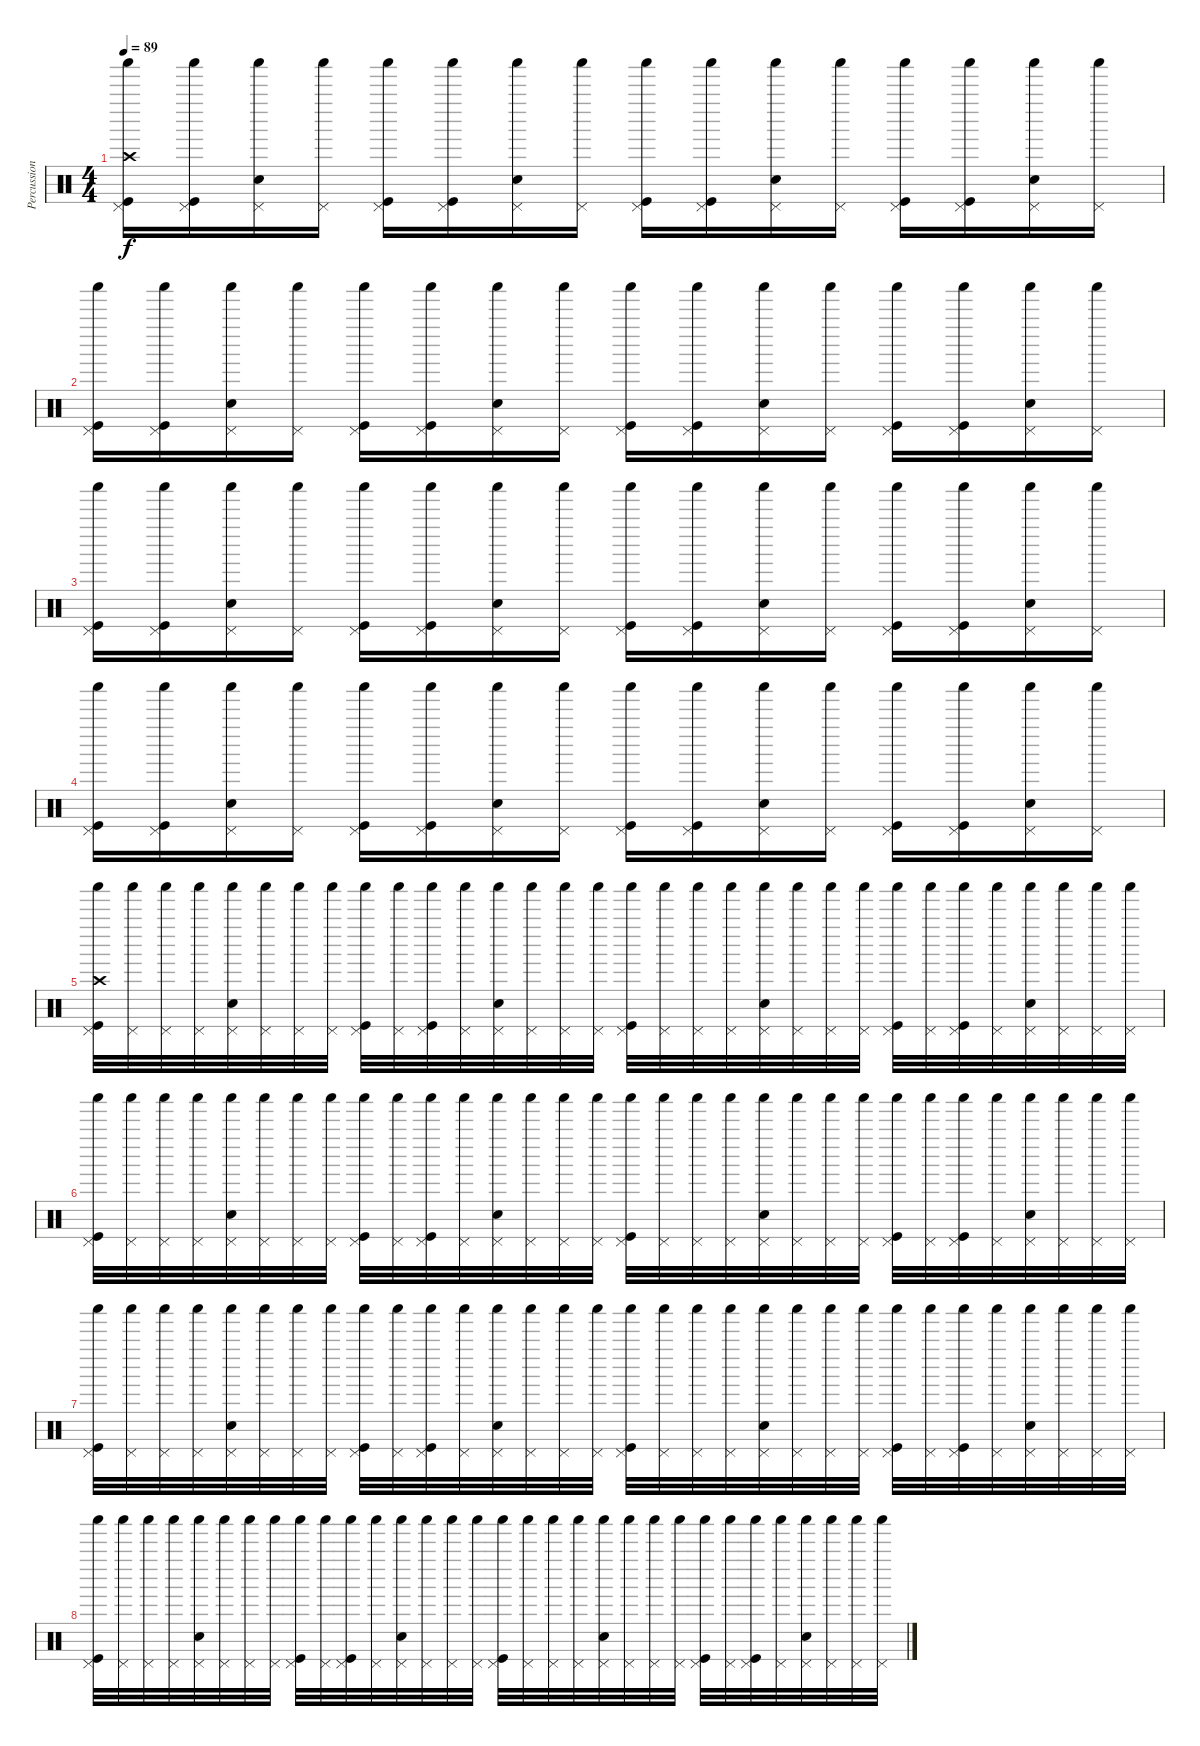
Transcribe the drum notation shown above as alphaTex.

\track ("Percussion" "Percussion") {instrument percussion}
\staff {score}
\articulation defaults
\ts (4 4)
\tempo 89
\clef neutral
\ks c
("Pedal Hi-Hat (hit)" "Shaker (hit)" "Crash high (hit)" "Kick (hit)").16{dy f} ("Pedal Hi-Hat (hit)" "Shaker (hit)" "Kick (hit)").16 ("Pedal Hi-Hat (hit)" "Shaker (hit)" "Snare (hit) 2").16 ("Pedal Hi-Hat (hit)" "Shaker (hit)").16 ("Pedal Hi-Hat (hit)" "Shaker (hit)" "Kick (hit)").16 ("Pedal Hi-Hat (hit)" "Shaker (hit)" "Kick (hit)").16 ("Pedal Hi-Hat (hit)" "Shaker (hit)" "Snare (hit) 2").16 ("Pedal Hi-Hat (hit)" "Shaker (hit)").16 ("Pedal Hi-Hat (hit)" "Shaker (hit)" "Kick (hit)").16 ("Pedal Hi-Hat (hit)" "Shaker (hit)" "Kick (hit)").16 ("Pedal Hi-Hat (hit)" "Shaker (hit)" "Snare (hit) 2").16 ("Pedal Hi-Hat (hit)" "Shaker (hit)").16 ("Pedal Hi-Hat (hit)" "Shaker (hit)" "Kick (hit)").16 ("Pedal Hi-Hat (hit)" "Shaker (hit)" "Kick (hit)").16 ("Pedal Hi-Hat (hit)" "Shaker (hit)" "Snare (hit) 2").16 ("Pedal Hi-Hat (hit)" "Shaker (hit)").16 |
("Pedal Hi-Hat (hit)" "Shaker (hit)" "Kick (hit)").16 ("Pedal Hi-Hat (hit)" "Shaker (hit)" "Kick (hit)").16 ("Pedal Hi-Hat (hit)" "Shaker (hit)" "Snare (hit) 2").16 ("Pedal Hi-Hat (hit)" "Shaker (hit)").16 ("Pedal Hi-Hat (hit)" "Shaker (hit)" "Kick (hit)").16 ("Pedal Hi-Hat (hit)" "Shaker (hit)" "Kick (hit)").16 ("Pedal Hi-Hat (hit)" "Shaker (hit)" "Snare (hit) 2").16 ("Pedal Hi-Hat (hit)" "Shaker (hit)").16 ("Pedal Hi-Hat (hit)" "Shaker (hit)" "Kick (hit)").16 ("Pedal Hi-Hat (hit)" "Shaker (hit)" "Kick (hit)").16 ("Pedal Hi-Hat (hit)" "Shaker (hit)" "Snare (hit) 2").16 ("Pedal Hi-Hat (hit)" "Shaker (hit)").16 ("Pedal Hi-Hat (hit)" "Shaker (hit)" "Kick (hit)").16 ("Pedal Hi-Hat (hit)" "Shaker (hit)" "Kick (hit)").16 ("Pedal Hi-Hat (hit)" "Shaker (hit)" "Snare (hit) 2").16 ("Pedal Hi-Hat (hit)" "Shaker (hit)").16 |
("Pedal Hi-Hat (hit)" "Shaker (hit)" "Kick (hit)").16 ("Pedal Hi-Hat (hit)" "Shaker (hit)" "Kick (hit)").16 ("Pedal Hi-Hat (hit)" "Shaker (hit)" "Snare (hit) 2").16 ("Pedal Hi-Hat (hit)" "Shaker (hit)").16 ("Pedal Hi-Hat (hit)" "Shaker (hit)" "Kick (hit)").16 ("Pedal Hi-Hat (hit)" "Shaker (hit)" "Kick (hit)").16 ("Pedal Hi-Hat (hit)" "Shaker (hit)" "Snare (hit) 2").16 ("Pedal Hi-Hat (hit)" "Shaker (hit)").16 ("Pedal Hi-Hat (hit)" "Shaker (hit)" "Kick (hit)").16 ("Pedal Hi-Hat (hit)" "Shaker (hit)" "Kick (hit)").16 ("Pedal Hi-Hat (hit)" "Shaker (hit)" "Snare (hit) 2").16 ("Pedal Hi-Hat (hit)" "Shaker (hit)").16 ("Pedal Hi-Hat (hit)" "Shaker (hit)" "Kick (hit)").16 ("Pedal Hi-Hat (hit)" "Shaker (hit)" "Kick (hit)").16 ("Pedal Hi-Hat (hit)" "Shaker (hit)" "Snare (hit) 2").16 ("Pedal Hi-Hat (hit)" "Shaker (hit)").16 |
("Pedal Hi-Hat (hit)" "Shaker (hit)" "Kick (hit)").16 ("Pedal Hi-Hat (hit)" "Shaker (hit)" "Kick (hit)").16 ("Pedal Hi-Hat (hit)" "Shaker (hit)" "Snare (hit) 2").16 ("Pedal Hi-Hat (hit)" "Shaker (hit)").16 ("Pedal Hi-Hat (hit)" "Shaker (hit)" "Kick (hit)").16 ("Pedal Hi-Hat (hit)" "Shaker (hit)" "Kick (hit)").16 ("Pedal Hi-Hat (hit)" "Shaker (hit)" "Snare (hit) 2").16 ("Pedal Hi-Hat (hit)" "Shaker (hit)").16 ("Pedal Hi-Hat (hit)" "Shaker (hit)" "Kick (hit)").16 ("Pedal Hi-Hat (hit)" "Shaker (hit)" "Kick (hit)").16 ("Pedal Hi-Hat (hit)" "Shaker (hit)" "Snare (hit) 2").16 ("Pedal Hi-Hat (hit)" "Shaker (hit)").16 ("Pedal Hi-Hat (hit)" "Shaker (hit)" "Kick (hit)").16 ("Pedal Hi-Hat (hit)" "Shaker (hit)" "Kick (hit)").16 ("Pedal Hi-Hat (hit)" "Shaker (hit)" "Snare (hit) 2").16 ("Pedal Hi-Hat (hit)" "Shaker (hit)").16 |
("Pedal Hi-Hat (hit)" "Shaker (hit)" "Crash high (hit)" "Kick (hit)").32 ("Pedal Hi-Hat (hit)" "Shaker (hit)").32 ("Pedal Hi-Hat (hit)" "Shaker (hit)").32 ("Pedal Hi-Hat (hit)" "Shaker (hit)").32 ("Pedal Hi-Hat (hit)" "Shaker (hit)" "Snare (hit) 2").32 ("Pedal Hi-Hat (hit)" "Shaker (hit)").32 ("Pedal Hi-Hat (hit)" "Shaker (hit)").32 ("Pedal Hi-Hat (hit)" "Shaker (hit)").32 ("Pedal Hi-Hat (hit)" "Shaker (hit)" "Kick (hit)").32 ("Pedal Hi-Hat (hit)" "Shaker (hit)").32 ("Pedal Hi-Hat (hit)" "Shaker (hit)" "Kick (hit)").32 ("Pedal Hi-Hat (hit)" "Shaker (hit)").32 ("Pedal Hi-Hat (hit)" "Shaker (hit)" "Snare (hit) 2").32 ("Pedal Hi-Hat (hit)" "Shaker (hit)").32 ("Pedal Hi-Hat (hit)" "Shaker (hit)").32 ("Pedal Hi-Hat (hit)" "Shaker (hit)").32 ("Pedal Hi-Hat (hit)" "Shaker (hit)" "Kick (hit)").32 ("Pedal Hi-Hat (hit)" "Shaker (hit)").32 ("Pedal Hi-Hat (hit)" "Shaker (hit)").32 ("Pedal Hi-Hat (hit)" "Shaker (hit)").32 ("Pedal Hi-Hat (hit)" "Shaker (hit)" "Snare (hit) 2").32 ("Pedal Hi-Hat (hit)" "Shaker (hit)").32 ("Pedal Hi-Hat (hit)" "Shaker (hit)").32 ("Pedal Hi-Hat (hit)" "Shaker (hit)").32 ("Pedal Hi-Hat (hit)" "Shaker (hit)" "Kick (hit)").32 ("Pedal Hi-Hat (hit)" "Shaker (hit)").32 ("Pedal Hi-Hat (hit)" "Shaker (hit)" "Kick (hit)").32 ("Pedal Hi-Hat (hit)" "Shaker (hit)").32 ("Pedal Hi-Hat (hit)" "Shaker (hit)" "Snare (hit) 2").32 ("Pedal Hi-Hat (hit)" "Shaker (hit)").32 ("Pedal Hi-Hat (hit)" "Shaker (hit)").32 ("Pedal Hi-Hat (hit)" "Shaker (hit)").32 |
("Pedal Hi-Hat (hit)" "Shaker (hit)" "Kick (hit)").32 ("Pedal Hi-Hat (hit)" "Shaker (hit)").32 ("Pedal Hi-Hat (hit)" "Shaker (hit)").32 ("Pedal Hi-Hat (hit)" "Shaker (hit)").32 ("Pedal Hi-Hat (hit)" "Shaker (hit)" "Snare (hit) 2").32 ("Pedal Hi-Hat (hit)" "Shaker (hit)").32 ("Pedal Hi-Hat (hit)" "Shaker (hit)").32 ("Pedal Hi-Hat (hit)" "Shaker (hit)").32 ("Pedal Hi-Hat (hit)" "Shaker (hit)" "Kick (hit)").32 ("Pedal Hi-Hat (hit)" "Shaker (hit)").32 ("Pedal Hi-Hat (hit)" "Shaker (hit)" "Kick (hit)").32 ("Pedal Hi-Hat (hit)" "Shaker (hit)").32 ("Pedal Hi-Hat (hit)" "Shaker (hit)" "Snare (hit) 2").32 ("Pedal Hi-Hat (hit)" "Shaker (hit)").32 ("Pedal Hi-Hat (hit)" "Shaker (hit)").32 ("Pedal Hi-Hat (hit)" "Shaker (hit)").32 ("Pedal Hi-Hat (hit)" "Shaker (hit)" "Kick (hit)").32 ("Pedal Hi-Hat (hit)" "Shaker (hit)").32 ("Pedal Hi-Hat (hit)" "Shaker (hit)").32 ("Pedal Hi-Hat (hit)" "Shaker (hit)").32 ("Pedal Hi-Hat (hit)" "Shaker (hit)" "Snare (hit) 2").32 ("Pedal Hi-Hat (hit)" "Shaker (hit)").32 ("Pedal Hi-Hat (hit)" "Shaker (hit)").32 ("Pedal Hi-Hat (hit)" "Shaker (hit)").32 ("Pedal Hi-Hat (hit)" "Shaker (hit)" "Kick (hit)").32 ("Pedal Hi-Hat (hit)" "Shaker (hit)").32 ("Pedal Hi-Hat (hit)" "Shaker (hit)" "Kick (hit)").32 ("Pedal Hi-Hat (hit)" "Shaker (hit)").32 ("Pedal Hi-Hat (hit)" "Shaker (hit)" "Snare (hit) 2").32 ("Pedal Hi-Hat (hit)" "Shaker (hit)").32 ("Pedal Hi-Hat (hit)" "Shaker (hit)").32 ("Pedal Hi-Hat (hit)" "Shaker (hit)").32 |
("Pedal Hi-Hat (hit)" "Shaker (hit)" "Kick (hit)").32 ("Pedal Hi-Hat (hit)" "Shaker (hit)").32 ("Pedal Hi-Hat (hit)" "Shaker (hit)").32 ("Pedal Hi-Hat (hit)" "Shaker (hit)").32 ("Pedal Hi-Hat (hit)" "Shaker (hit)" "Snare (hit) 2").32 ("Pedal Hi-Hat (hit)" "Shaker (hit)").32 ("Pedal Hi-Hat (hit)" "Shaker (hit)").32 ("Pedal Hi-Hat (hit)" "Shaker (hit)").32 ("Pedal Hi-Hat (hit)" "Shaker (hit)" "Kick (hit)").32 ("Pedal Hi-Hat (hit)" "Shaker (hit)").32 ("Pedal Hi-Hat (hit)" "Shaker (hit)" "Kick (hit)").32 ("Pedal Hi-Hat (hit)" "Shaker (hit)").32 ("Pedal Hi-Hat (hit)" "Shaker (hit)" "Snare (hit) 2").32 ("Pedal Hi-Hat (hit)" "Shaker (hit)").32 ("Pedal Hi-Hat (hit)" "Shaker (hit)").32 ("Pedal Hi-Hat (hit)" "Shaker (hit)").32 ("Pedal Hi-Hat (hit)" "Shaker (hit)" "Kick (hit)").32 ("Pedal Hi-Hat (hit)" "Shaker (hit)").32 ("Pedal Hi-Hat (hit)" "Shaker (hit)").32 ("Pedal Hi-Hat (hit)" "Shaker (hit)").32 ("Pedal Hi-Hat (hit)" "Shaker (hit)" "Snare (hit) 2").32 ("Pedal Hi-Hat (hit)" "Shaker (hit)").32 ("Pedal Hi-Hat (hit)" "Shaker (hit)").32 ("Pedal Hi-Hat (hit)" "Shaker (hit)").32 ("Pedal Hi-Hat (hit)" "Shaker (hit)" "Kick (hit)").32 ("Pedal Hi-Hat (hit)" "Shaker (hit)").32 ("Pedal Hi-Hat (hit)" "Shaker (hit)" "Kick (hit)").32 ("Pedal Hi-Hat (hit)" "Shaker (hit)").32 ("Pedal Hi-Hat (hit)" "Shaker (hit)" "Snare (hit) 2").32 ("Pedal Hi-Hat (hit)" "Shaker (hit)").32 ("Pedal Hi-Hat (hit)" "Shaker (hit)").32 ("Pedal Hi-Hat (hit)" "Shaker (hit)").32 |
("Pedal Hi-Hat (hit)" "Shaker (hit)" "Kick (hit)").32 ("Pedal Hi-Hat (hit)" "Shaker (hit)").32 ("Pedal Hi-Hat (hit)" "Shaker (hit)").32 ("Pedal Hi-Hat (hit)" "Shaker (hit)").32 ("Pedal Hi-Hat (hit)" "Shaker (hit)" "Snare (hit) 2").32 ("Pedal Hi-Hat (hit)" "Shaker (hit)").32 ("Pedal Hi-Hat (hit)" "Shaker (hit)").32 ("Pedal Hi-Hat (hit)" "Shaker (hit)").32 ("Pedal Hi-Hat (hit)" "Shaker (hit)" "Kick (hit)").32 ("Pedal Hi-Hat (hit)" "Shaker (hit)").32 ("Pedal Hi-Hat (hit)" "Shaker (hit)" "Kick (hit)").32 ("Pedal Hi-Hat (hit)" "Shaker (hit)").32 ("Pedal Hi-Hat (hit)" "Shaker (hit)" "Snare (hit) 2").32 ("Pedal Hi-Hat (hit)" "Shaker (hit)").32 ("Pedal Hi-Hat (hit)" "Shaker (hit)").32 ("Pedal Hi-Hat (hit)" "Shaker (hit)").32 ("Pedal Hi-Hat (hit)" "Shaker (hit)" "Kick (hit)").32 ("Pedal Hi-Hat (hit)" "Shaker (hit)").32 ("Pedal Hi-Hat (hit)" "Shaker (hit)").32 ("Pedal Hi-Hat (hit)" "Shaker (hit)").32 ("Pedal Hi-Hat (hit)" "Shaker (hit)" "Snare (hit) 2").32 ("Pedal Hi-Hat (hit)" "Shaker (hit)").32 ("Pedal Hi-Hat (hit)" "Shaker (hit)").32 ("Pedal Hi-Hat (hit)" "Shaker (hit)").32 ("Pedal Hi-Hat (hit)" "Shaker (hit)" "Kick (hit)").32 ("Pedal Hi-Hat (hit)" "Shaker (hit)").32 ("Pedal Hi-Hat (hit)" "Shaker (hit)" "Kick (hit)").32 ("Pedal Hi-Hat (hit)" "Shaker (hit)").32 ("Pedal Hi-Hat (hit)" "Shaker (hit)" "Snare (hit) 2").32 ("Pedal Hi-Hat (hit)" "Shaker (hit)").32 ("Pedal Hi-Hat (hit)" "Shaker (hit)").32 ("Pedal Hi-Hat (hit)" "Shaker (hit)").32
